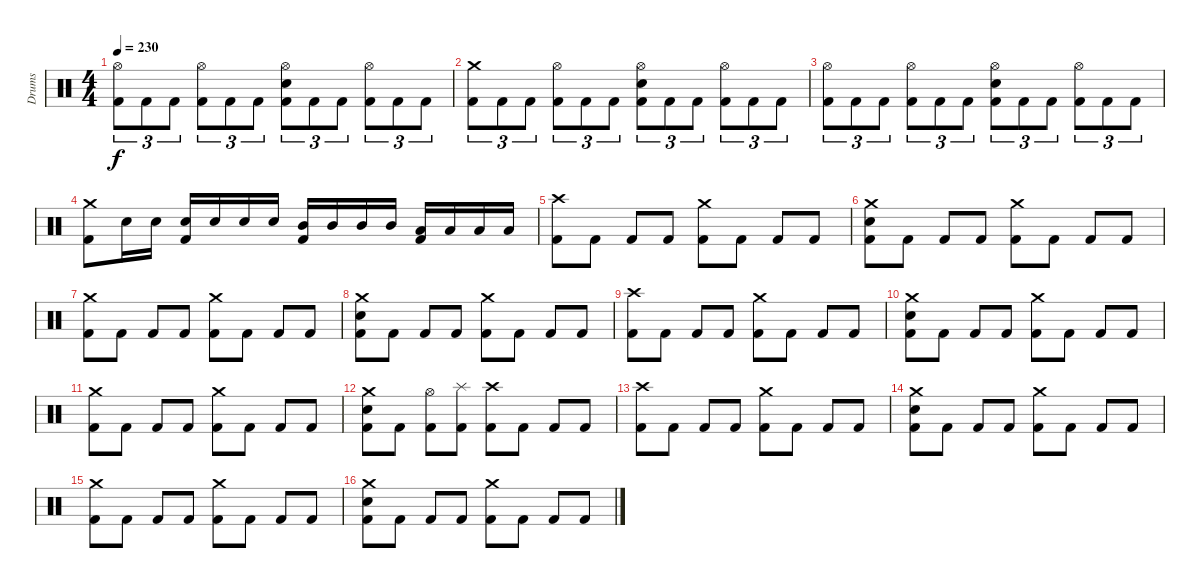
\track ("Drums" "Drums") {instrument percussion}
\staff {score}
\articulation defaults
\ts (4 4)
\tempo 230
\clef neutral
\ks c
("Hi-Hat (open)" "Kick (hit) 2").8{tu (3 2) dy f} "Kick (hit) 2".8{tu (3 2)} "Kick (hit) 2".8{tu (3 2)} ("Hi-Hat (open)" "Kick (hit) 2").8{tu (3 2)} "Kick (hit) 2".8{tu (3 2)} "Kick (hit) 2".8{tu (3 2)} ("Hi-Hat (open)" "Electric Snare (hit)" "Kick (hit) 2").8{tu (3 2)} "Kick (hit) 2".8{tu (3 2)} "Kick (hit) 2".8{tu (3 2)} ("Hi-Hat (open)" "Kick (hit) 2").8{tu (3 2)} "Kick (hit) 2".8{tu (3 2)} "Kick (hit) 2".8{tu (3 2)} |
("Crash medium (hit)" "Kick (hit) 2").8{tu (3 2)} "Kick (hit) 2".8{tu (3 2)} "Kick (hit) 2".8{tu (3 2)} ("Hi-Hat (open)" "Kick (hit) 2").8{tu (3 2)} "Kick (hit) 2".8{tu (3 2)} "Kick (hit) 2".8{tu (3 2)} ("Hi-Hat (open)" "Electric Snare (hit)" "Kick (hit) 2").8{tu (3 2)} "Kick (hit) 2".8{tu (3 2)} "Kick (hit) 2".8{tu (3 2)} ("Hi-Hat (open)" "Kick (hit) 2").8{tu (3 2)} "Kick (hit) 2".8{tu (3 2)} "Kick (hit) 2".8{tu (3 2)} |
("Hi-Hat (open)" "Kick (hit) 2").8{tu (3 2)} "Kick (hit) 2".8{tu (3 2)} "Kick (hit) 2".8{tu (3 2)} ("Hi-Hat (open)" "Kick (hit) 2").8{tu (3 2)} "Kick (hit) 2".8{tu (3 2)} "Kick (hit) 2".8{tu (3 2)} ("Hi-Hat (open)" "Electric Snare (hit)" "Kick (hit) 2").8{tu (3 2)} "Kick (hit) 2".8{tu (3 2)} "Kick (hit) 2".8{tu (3 2)} ("Hi-Hat (open)" "Kick (hit) 2").8{tu (3 2)} "Kick (hit) 2".8{tu (3 2)} "Kick (hit) 2".8{tu (3 2)} |
("Crash medium (hit)" "Kick (hit) 2").8 "Electric Snare (hit)".16 "Electric Snare (hit)".16 ("Electric Snare (hit)" "Kick (hit) 2").16 "Electric Snare (hit)".16 "Electric Snare (hit)".16 "Electric Snare (hit)".16 ("Mid Tom (hit)" "Kick (hit) 2").16 "Mid Tom (hit)".16 "Mid Tom (hit)".16 "Mid Tom (hit)".16 ("Low Tom (hit)" "Kick (hit) 2").16 "Low Tom (hit)".16 "Low Tom (hit)".16 "Low Tom (hit)".16 |
("Crash high (hit)" "Kick (hit) 2").8 "Kick (hit) 2".8 "Kick (hit) 2".8 "Kick (hit) 2".8 ("Crash medium (hit)" "Kick (hit) 2").8 "Kick (hit) 2".8 "Kick (hit) 2".8 "Kick (hit) 2".8 |
("Crash medium (hit)" "Electric Snare (hit)" "Kick (hit) 2").8 "Kick (hit) 2".8 "Kick (hit) 2".8 "Kick (hit) 2".8 ("Crash medium (hit)" "Kick (hit) 2").8 "Kick (hit) 2".8 "Kick (hit) 2".8 "Kick (hit) 2".8 |
("Crash medium (hit)" "Kick (hit) 2").8 "Kick (hit) 2".8 "Kick (hit) 2".8 "Kick (hit) 2".8 ("Crash medium (hit)" "Kick (hit) 2").8 "Kick (hit) 2".8 "Kick (hit) 2".8 "Kick (hit) 2".8 |
("Crash medium (hit)" "Electric Snare (hit)" "Kick (hit) 2").8 "Kick (hit) 2".8 "Kick (hit) 2".8 "Kick (hit) 2".8 ("Crash medium (hit)" "Kick (hit) 2").8 "Kick (hit) 2".8 "Kick (hit) 2".8 "Kick (hit) 2".8 |
("Crash high (hit)" "Kick (hit) 2").8 "Kick (hit) 2".8 "Kick (hit) 2".8 "Kick (hit) 2".8 ("Crash medium (hit)" "Kick (hit) 2").8 "Kick (hit) 2".8 "Kick (hit) 2".8 "Kick (hit) 2".8 |
("Crash medium (hit)" "Electric Snare (hit)" "Kick (hit) 2").8 "Kick (hit) 2".8 "Kick (hit) 2".8 "Kick (hit) 2".8 ("Crash medium (hit)" "Kick (hit) 2").8 "Kick (hit) 2".8 "Kick (hit) 2".8 "Kick (hit) 2".8 |
("Crash medium (hit)" "Kick (hit) 2").8 "Kick (hit) 2".8 "Kick (hit) 2".8 "Kick (hit) 2".8 ("Crash medium (hit)" "Kick (hit) 2").8 "Kick (hit) 2".8 "Kick (hit) 2".8 "Kick (hit) 2".8 |
("Crash medium (hit)" "Electric Snare (hit)" "Kick (hit) 2").8 "Kick (hit) 2".8 ("Hi-Hat (open)" "Kick (hit) 2").8 ("Splash (hit)" "Kick (hit) 2").8 ("Crash high (hit)" "Kick (hit) 2").8 "Kick (hit) 2".8 "Kick (hit) 2".8 "Kick (hit) 2".8 |
("Crash high (hit)" "Kick (hit) 2").8 "Kick (hit) 2".8 "Kick (hit) 2".8 "Kick (hit) 2".8 ("Crash medium (hit)" "Kick (hit) 2").8 "Kick (hit) 2".8 "Kick (hit) 2".8 "Kick (hit) 2".8 |
("Crash medium (hit)" "Electric Snare (hit)" "Kick (hit) 2").8 "Kick (hit) 2".8 "Kick (hit) 2".8 "Kick (hit) 2".8 ("Crash medium (hit)" "Kick (hit) 2").8 "Kick (hit) 2".8 "Kick (hit) 2".8 "Kick (hit) 2".8 |
("Crash medium (hit)" "Kick (hit) 2").8 "Kick (hit) 2".8 "Kick (hit) 2".8 "Kick (hit) 2".8 ("Crash medium (hit)" "Kick (hit) 2").8 "Kick (hit) 2".8 "Kick (hit) 2".8 "Kick (hit) 2".8 |
("Crash medium (hit)" "Electric Snare (hit)" "Kick (hit) 2").8 "Kick (hit) 2".8 "Kick (hit) 2".8 "Kick (hit) 2".8 ("Crash medium (hit)" "Kick (hit) 2").8 "Kick (hit) 2".8 "Kick (hit) 2".8 "Kick (hit) 2".8
